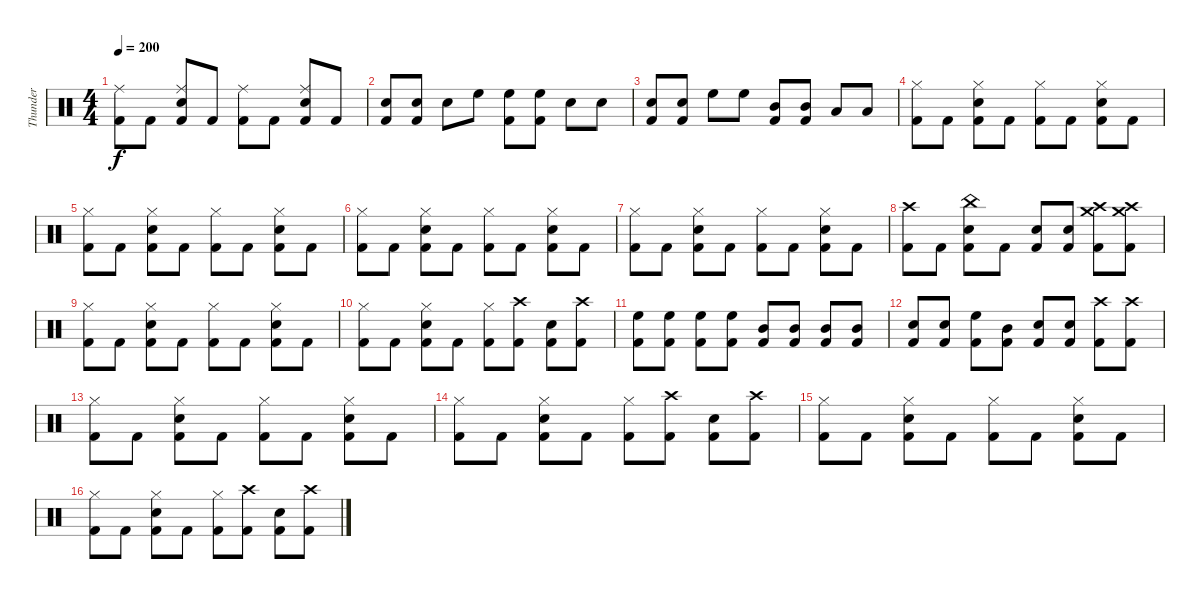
\track ("Thunder" "Thunder") {instrument percussion}
\staff {score}
\articulation defaults
\ts (4 4)
\tempo 200
\clef neutral
\ks c
("Kick (hit) 2" "Ride (middle)").8{dy f} "Kick (hit) 2".8 ("Kick (hit) 2" "Ride (middle)" "Snare (hit) 2").8 "Kick (hit) 2".8 ("Kick (hit) 2" "Ride (middle)").8 "Kick (hit) 2".8 ("Kick (hit) 2" "Ride (middle)" "Snare (hit) 2").8 "Kick (hit) 2".8 |
("Snare (hit) 2" "Kick (hit) 2").8 ("Snare (hit) 2" "Kick (hit) 2").8 "Snare (hit) 2".8 "High Floor Tom (hit)".8 ("High Floor Tom (hit)" "Kick (hit) 2").8 ("High Floor Tom (hit)" "Kick (hit) 2").8 "Snare (hit) 2".8 "Snare (hit) 2".8 |
("Snare (hit) 2" "Kick (hit) 2").8 ("Snare (hit) 2" "Kick (hit) 2").8 "High Floor Tom (hit)".8 "High Floor Tom (hit)".8 ("Mid Tom (hit)" "Kick (hit) 2").8 ("Mid Tom (hit)" "Kick (hit) 2").8 "Low Tom (hit)".8 "Low Tom (hit)".8 |
("Kick (hit) 2" "Hi-Hat (closed)").8 "Kick (hit) 2".8 ("Kick (hit) 2" "Hi-Hat (closed)" "Snare (hit) 2").8 "Kick (hit) 2".8 ("Kick (hit) 2" "Hi-Hat (closed)").8 "Kick (hit) 2".8 ("Kick (hit) 2" "Hi-Hat (closed)" "Snare (hit) 2").8 "Kick (hit) 2".8 |
("Kick (hit) 2" "Hi-Hat (closed)").8 "Kick (hit) 2".8 ("Kick (hit) 2" "Hi-Hat (closed)" "Snare (hit) 2").8 "Kick (hit) 2".8 ("Kick (hit) 2" "Hi-Hat (closed)").8 "Kick (hit) 2".8 ("Kick (hit) 2" "Hi-Hat (closed)" "Snare (hit) 2").8 "Kick (hit) 2".8 |
("Kick (hit) 2" "Hi-Hat (closed)").8 "Kick (hit) 2".8 ("Kick (hit) 2" "Hi-Hat (closed)" "Snare (hit) 2").8 "Kick (hit) 2".8 ("Kick (hit) 2" "Hi-Hat (closed)").8 "Kick (hit) 2".8 ("Kick (hit) 2" "Hi-Hat (closed)" "Snare (hit) 2").8 "Kick (hit) 2".8 |
("Kick (hit) 2" "Hi-Hat (closed)").8 "Kick (hit) 2".8 ("Kick (hit) 2" "Hi-Hat (closed)" "Snare (hit) 2").8 "Kick (hit) 2".8 ("Kick (hit) 2" "Hi-Hat (closed)").8 "Kick (hit) 2".8 ("Kick (hit) 2" "Hi-Hat (closed)" "Snare (hit) 2").8 "Kick (hit) 2".8 |
("Kick (hit) 2" "Crash high (hit)").8 "Kick (hit) 2".8 ("Kick (hit) 2" "China (hit)" "Snare (hit) 2").8 "Kick (hit) 2".8 ("Kick (hit) 2" "Snare (hit) 2").8 ("Kick (hit) 2" "Snare (hit) 2").8 ("Kick (hit) 2" "Crash high (hit)" "Crash medium (hit)").8 ("Kick (hit) 2" "Crash high (hit)" "Crash medium (hit)").8 |
("Kick (hit) 2" "Hi-Hat (closed)").8 "Kick (hit) 2".8 ("Kick (hit) 2" "Hi-Hat (closed)" "Snare (hit) 2").8 "Kick (hit) 2".8 ("Kick (hit) 2" "Hi-Hat (closed)").8 "Kick (hit) 2".8 ("Kick (hit) 2" "Hi-Hat (closed)" "Snare (hit) 2").8 "Kick (hit) 2".8 |
("Kick (hit) 2" "Hi-Hat (closed)").8 "Kick (hit) 2".8 ("Kick (hit) 2" "Hi-Hat (closed)" "Snare (hit) 2").8 "Kick (hit) 2".8 ("Kick (hit) 2" "Hi-Hat (closed)").8 ("Kick (hit) 2" "Crash high (hit)").8 ("Kick (hit) 2" "Snare (hit) 2").8 ("Kick (hit) 2" "Crash high (hit)").8 |
("Kick (hit) 2" "High Floor Tom (hit)").8 ("Kick (hit) 2" "High Floor Tom (hit)").8 ("Kick (hit) 2" "High Floor Tom (hit)").8 ("Kick (hit) 2" "High Floor Tom (hit)").8 ("Kick (hit) 2" "Mid Tom (hit)").8 ("Kick (hit) 2" "Mid Tom (hit)").8 ("Kick (hit) 2" "Mid Tom (hit)").8 ("Kick (hit) 2" "Mid Tom (hit)").8 |
("Kick (hit) 2" "Snare (hit) 2").8 ("Kick (hit) 2" "Snare (hit) 2").8 ("Kick (hit) 2" "High Floor Tom (hit)").8 ("Kick (hit) 2" "Mid Tom (hit)").8 ("Kick (hit) 2" "Snare (hit) 2").8 ("Kick (hit) 2" "Snare (hit) 2").8 ("Kick (hit) 2" "Crash high (hit)").8 ("Kick (hit) 2" "Crash high (hit)").8 |
("Kick (hit) 2" "Hi-Hat (closed)").8 "Kick (hit) 2".8 ("Kick (hit) 2" "Hi-Hat (closed)" "Snare (hit) 2").8 "Kick (hit) 2".8 ("Kick (hit) 2" "Hi-Hat (closed)").8 "Kick (hit) 2".8 ("Kick (hit) 2" "Hi-Hat (closed)" "Snare (hit) 2").8 "Kick (hit) 2".8 |
("Kick (hit) 2" "Hi-Hat (closed)").8 "Kick (hit) 2".8 ("Kick (hit) 2" "Hi-Hat (closed)" "Snare (hit) 2").8 "Kick (hit) 2".8 ("Kick (hit) 2" "Hi-Hat (closed)").8 ("Kick (hit) 2" "Crash high (hit)").8 ("Kick (hit) 2" "Snare (hit) 2").8 ("Kick (hit) 2" "Crash high (hit)").8 |
("Kick (hit) 2" "Hi-Hat (closed)").8 "Kick (hit) 2".8 ("Kick (hit) 2" "Hi-Hat (closed)" "Snare (hit) 2").8 "Kick (hit) 2".8 ("Kick (hit) 2" "Hi-Hat (closed)").8 "Kick (hit) 2".8 ("Kick (hit) 2" "Hi-Hat (closed)" "Snare (hit) 2").8 "Kick (hit) 2".8 |
("Kick (hit) 2" "Hi-Hat (closed)").8 "Kick (hit) 2".8 ("Kick (hit) 2" "Hi-Hat (closed)" "Snare (hit) 2").8 "Kick (hit) 2".8 ("Kick (hit) 2" "Hi-Hat (closed)").8 ("Kick (hit) 2" "Crash high (hit)").8 ("Kick (hit) 2" "Snare (hit) 2").8 ("Kick (hit) 2" "Crash high (hit)").8
